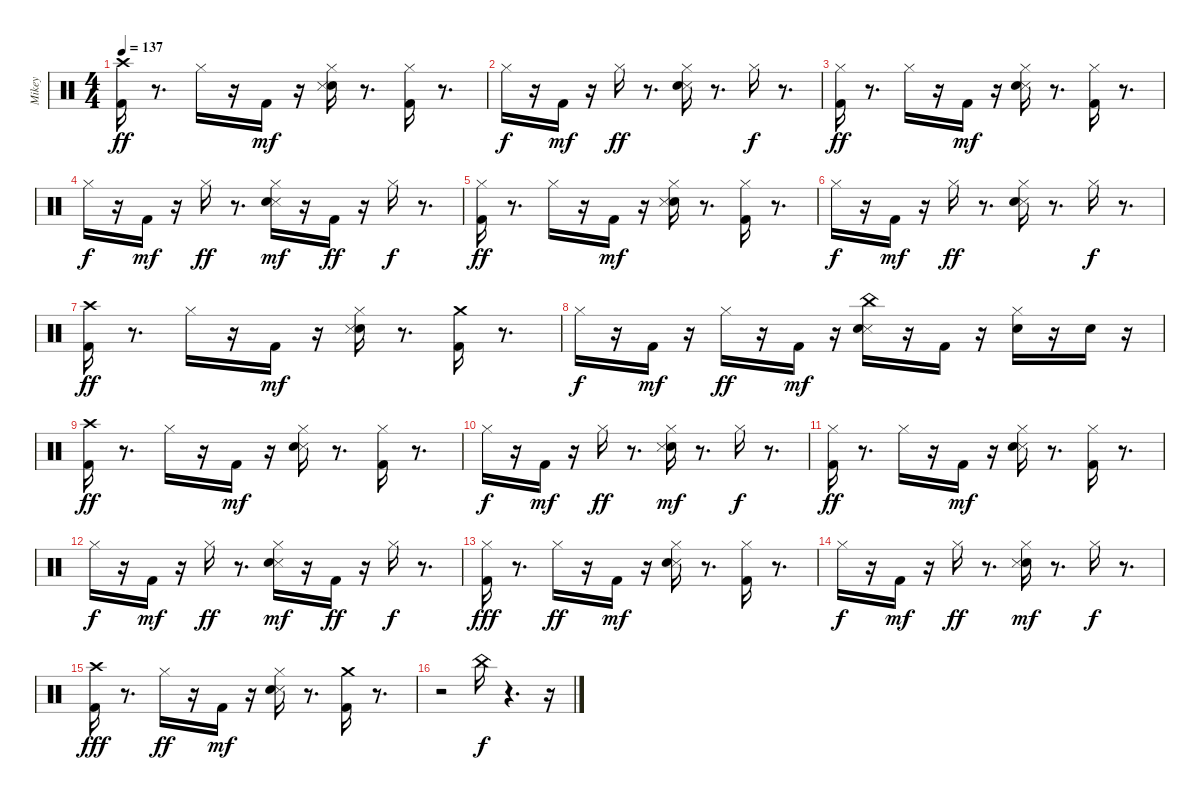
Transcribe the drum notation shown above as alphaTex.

\track ("Mikey" "Mikey") {instrument percussion}
\staff {score}
\articulation defaults
\ts (4 4)
\tempo 137
\clef neutral
\ks c
("Crash high (hit)" "Kick (hit) 2").16{dy ff} r.8{d} "Hi-Hat (closed)".16 r.16 "Kick (hit) 2".16{dy mf} r.16 ("Electric Snare (hit)" "Snare (side stick) 3" "Hi-Hat (closed)").16 r.8{d} ("Kick (hit) 2" "Hi-Hat (closed)").16 r.8{d} |
"Hi-Hat (closed)".16{dy f} r.16 "Kick (hit) 2".16{dy mf} r.16 "Hi-Hat (closed)".16{dy ff} r.8{d} ("Snare (side stick) 3" "Electric Snare (hit)" "Hi-Hat (closed)").16 r.8{d} "Hi-Hat (closed)".16{dy f} r.8{d} |
("Kick (hit) 2" "Hi-Hat (closed)").16{dy ff} r.8{d} "Hi-Hat (closed)".16 r.16 "Kick (hit) 2".16{dy mf} r.16 ("Hi-Hat (closed)" "Snare (side stick) 3" "Electric Snare (hit)").16 r.8{d} ("Hi-Hat (closed)" "Kick (hit) 2").16 r.8{d} |
"Hi-Hat (closed)".16{dy f} r.16 "Kick (hit) 2".16{dy mf} r.16 "Hi-Hat (closed)".16{dy ff} r.8{d} ("Snare (side stick) 3" "Hi-Hat (closed)" "Electric Snare (hit)").16{dy mf} r.16 "Kick (hit) 2".16{dy ff} r.16 "Hi-Hat (closed)".16{dy f} r.8{d} |
("Hi-Hat (closed)" "Kick (hit) 2").16{dy ff} r.8{d} "Hi-Hat (closed)".16 r.16 "Kick (hit) 2".16{dy mf} r.16 ("Electric Snare (hit)" "Snare (side stick) 3" "Hi-Hat (closed)").16 r.8{d} ("Kick (hit) 2" "Hi-Hat (closed)").16 r.8{d} |
"Hi-Hat (closed)".16{dy f} r.16 "Kick (hit) 2".16{dy mf} r.16 "Hi-Hat (closed)".16{dy ff} r.8{d} ("Snare (side stick) 3" "Electric Snare (hit)" "Hi-Hat (closed)").16 r.8{d} "Hi-Hat (closed)".16{dy f} r.8{d} |
("Crash high (hit)" "Kick (hit) 2").16{dy ff} r.8{d} "Hi-Hat (closed)".16 r.16 "Kick (hit) 2".16{dy mf} r.16 ("Electric Snare (hit)" "Snare (side stick) 3" "Hi-Hat (closed)").16 r.8{d} ("Crash medium (hit)" "Kick (hit) 2").16 r.8{d} |
"Hi-Hat (closed)".16{dy f} r.16 "Kick (hit) 2".16{dy mf} r.16 "Hi-Hat (closed)".16{dy ff} r.16 "Kick (hit) 2".16{dy mf} r.16 ("China (hit)" "Snare (side stick) 3" "Electric Snare (hit)").16 r.16 "Kick (hit) 2".16 r.16 ("Electric Snare (hit)" "Hi-Hat (closed)").16 r.16 "Electric Snare (hit)".16 r.16 |
("Crash high (hit)" "Kick (hit) 2").16{dy ff} r.8{d} "Hi-Hat (closed)".16 r.16 "Kick (hit) 2".16{dy mf} r.16 ("Hi-Hat (closed)" "Snare (side stick) 3" "Electric Snare (hit)").16 r.8{d} ("Hi-Hat (closed)" "Kick (hit) 2").16 r.8{d} |
"Hi-Hat (closed)".16{dy f} r.16 "Kick (hit) 2".16{dy mf} r.16 "Hi-Hat (closed)".16{dy ff} r.8{d} ("Hi-Hat (closed)" "Electric Snare (hit)" "Snare (side stick) 3").16{dy mf} r.8{d} "Hi-Hat (closed)".16{dy f} r.8{d} |
("Kick (hit) 2" "Hi-Hat (closed)").16{dy ff} r.8{d} "Hi-Hat (closed)".16 r.16 "Kick (hit) 2".16{dy mf} r.16 ("Hi-Hat (closed)" "Snare (side stick) 3" "Electric Snare (hit)").16 r.8{d} ("Hi-Hat (closed)" "Kick (hit) 2").16 r.8{d} |
"Hi-Hat (closed)".16{dy f} r.16 "Kick (hit) 2".16{dy mf} r.16 "Hi-Hat (closed)".16{dy ff} r.8{d} ("Snare (side stick) 3" "Hi-Hat (closed)" "Electric Snare (hit)").16{dy mf} r.16 "Kick (hit) 2".16{dy ff} r.16 "Hi-Hat (closed)".16{dy f} r.8{d} |
("Kick (hit) 2" "Hi-Hat (closed)").16{dy fff} r.8{d} "Hi-Hat (closed)".16{dy ff} r.16 "Kick (hit) 2".16{dy mf} r.16 ("Hi-Hat (closed)" "Snare (side stick) 3" "Electric Snare (hit)").16 r.8{d} ("Hi-Hat (closed)" "Kick (hit) 2").16 r.8{d} |
"Hi-Hat (closed)".16{dy f} r.16 "Kick (hit) 2".16{dy mf} r.16 "Hi-Hat (closed)".16{dy ff} r.8{d} ("Hi-Hat (closed)" "Electric Snare (hit)" "Snare (side stick) 3").16{dy mf} r.8{d} "Hi-Hat (closed)".16{dy f} r.8{d} |
("Kick (hit) 2" "Crash high (hit)").16{dy fff} r.8{d} "Hi-Hat (closed)".16{dy ff} r.16 "Kick (hit) 2".16{dy mf} r.16 ("Hi-Hat (closed)" "Snare (side stick) 3" "Electric Snare (hit)").16 r.8{d} ("Kick (hit) 2" "Crash medium (hit)").16 r.8{d} |
r.2 "China (hit)".16{dy f} r.4{d} r.16
